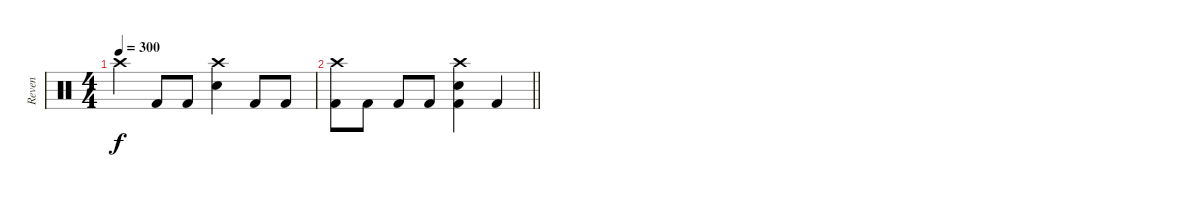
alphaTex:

\track ("Reven" "Reven") {instrument percussion}
\staff {score}
\articulation defaults
\ts (4 4)
\tempo 300
\clef neutral
\ks c "Crash high (hit)".4{dy f} "Kick (hit) 2".8 "Kick (hit) 2".8
("Crash high (hit)" "Electric Snare (hit)").4 "Kick (hit) 2".8 "Kick (hit) 2".8 |
\barLineRight lightlight
("Crash high (hit)" "Kick (hit) 2").8 "Kick (hit) 2".8 "Kick (hit) 2".8 "Kick (hit) 2".8 ("Crash high (hit)" "Electric Snare (hit)" "Kick (hit) 2").4 "Kick (hit) 2".4
